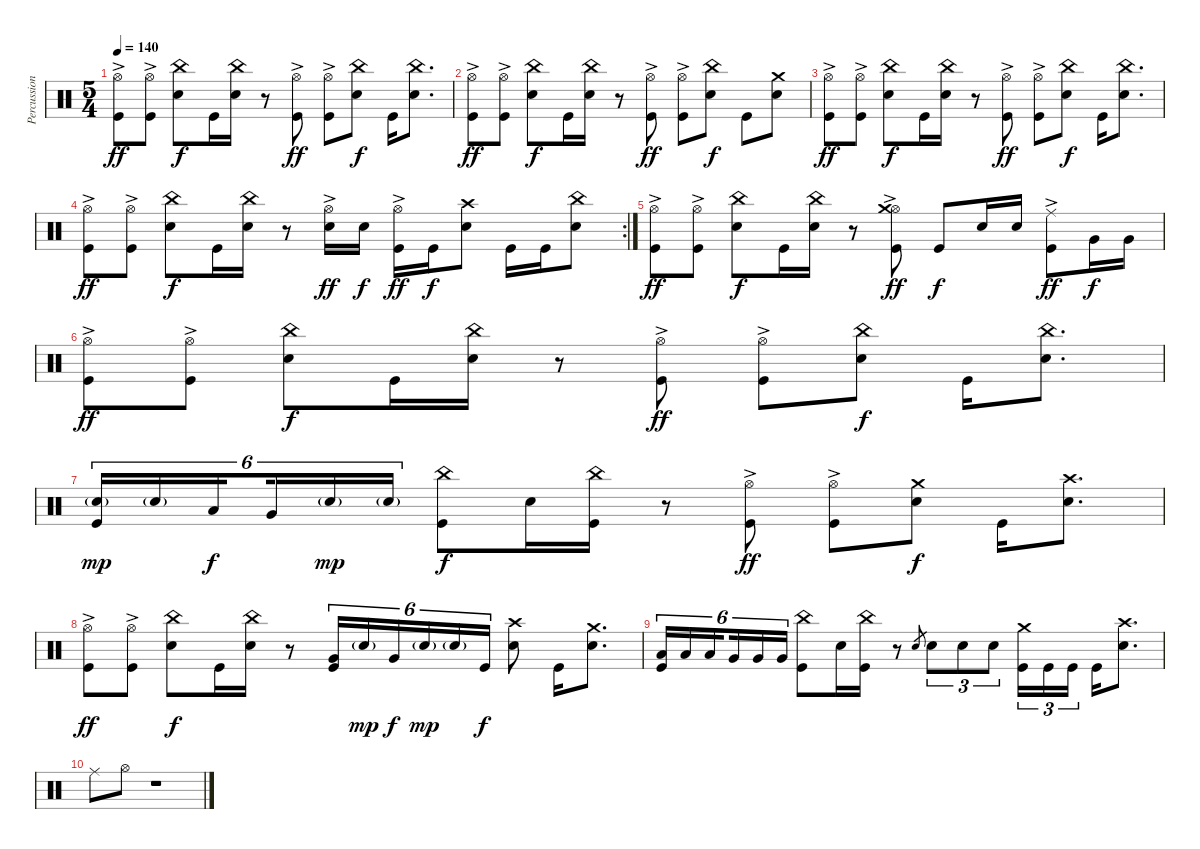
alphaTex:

\track ("Percussion" "Percussion") {instrument percussion}
\staff {score}
\articulation defaults
\ts (5 4)
\tempo 140
\clef neutral
\ks c
("Hi-Hat (open)"{ac} "Kick (hit)").8{dy ff} ("Hi-Hat (open)"{ac} "Kick (hit)").8 ("China (hit)" "Electric Snare (hit)").8{dy f} "Kick (hit)".16 ("China (hit)" "Electric Snare (hit)").16 r.8 ("Hi-Hat (open)"{ac} "Kick (hit)").8{dy ff} ("Hi-Hat (open)"{ac} "Kick (hit)").8 ("China (hit)" "Electric Snare (hit)").8{dy f} "Kick (hit)".16 ("China (hit)" "Electric Snare (hit)").8{d} |
("Hi-Hat (open)"{ac} "Kick (hit)").8{dy ff} ("Hi-Hat (open)"{ac} "Kick (hit)").8 ("China (hit)" "Electric Snare (hit)").8{dy f} "Kick (hit)".16 ("China (hit)" "Electric Snare (hit)").16 r.8 ("Hi-Hat (open)"{ac} "Kick (hit)").8{dy ff} ("Hi-Hat (open)"{ac} "Kick (hit)").8 ("China (hit)" "Electric Snare (hit)").8{dy f} "Kick (hit)".8 ("Crash medium (hit)" "Electric Snare (hit)").8 |
("Hi-Hat (open)"{ac} "Kick (hit)").8{dy ff} ("Hi-Hat (open)"{ac} "Kick (hit)").8 ("China (hit)" "Electric Snare (hit)").8{dy f} "Kick (hit)".16 ("China (hit)" "Electric Snare (hit)").16 r.8 ("Hi-Hat (open)"{ac} "Kick (hit)").8{dy ff} ("Hi-Hat (open)"{ac} "Kick (hit)").8 ("China (hit)" "Electric Snare (hit)").8{dy f} "Kick (hit)".16 ("China (hit)" "Electric Snare (hit)").8{d} |
\rc 2
("Hi-Hat (open)"{ac} "Kick (hit)").8{dy ff} ("Hi-Hat (open)"{ac} "Kick (hit)").8 ("China (hit)" "Electric Snare (hit)").8{dy f} "Kick (hit)".16 ("China (hit)" "Electric Snare (hit)").16 r.8 ("Hi-Hat (open)"{ac} "Electric Snare (hit)").16{dy ff} "Electric Snare (hit)".16{dy f} ("Hi-Hat (open)"{ac} "Kick (hit)").16{dy ff} "Kick (hit)".16{dy f} ("Crash high (hit)" "Electric Snare (hit)").8 "Kick (hit)".16 "Kick (hit)".16 ("China (hit)" "Electric Snare (hit)").8 |
("Hi-Hat (open)"{ac} "Kick (hit)").8{dy ff} ("Hi-Hat (open)"{ac} "Kick (hit)").8 ("China (hit)" "Electric Snare (hit)").8{dy f} "Kick (hit)".16 ("China (hit)" "Electric Snare (hit)").16 r.8 ("Hi-Hat (open)" "Crash medium (hit)"{ac} "Kick (hit)").8{dy ff} "Kick (hit)".8{dy f} "Electric Snare (hit)".16 "Electric Snare (hit)".16 ("Ride (middle)"{ac} "Kick (hit)").8{dy ff} "Very Low Tom (hit)".16{dy f} "Very Low Tom (hit)".16 |
("Hi-Hat (open)"{ac} "Kick (hit)").8{dy ff} ("Hi-Hat (open)"{ac} "Kick (hit)").8 ("China (hit)" "Electric Snare (hit)").8{dy f} "Kick (hit)".16 ("China (hit)" "Electric Snare (hit)").16 r.8 ("Hi-Hat (open)"{ac} "Kick (hit)").8{dy ff} ("Hi-Hat (open)"{ac} "Kick (hit)").8 ("China (hit)" "Electric Snare (hit)").8{dy f} "Kick (hit)".16 ("China (hit)" "Electric Snare (hit)").8{d} |
("Electric Snare (hit)"{g} "Kick (hit)").16{tu (6 4) dy mp} "Electric Snare (hit)"{g}.16{tu (6 4)} "Low Tom (hit)".16{tu (6 4) dy f beam splitsecondary} "Very Low Tom (hit)".16{tu (6 4)} "Electric Snare (hit)"{g}.16{tu (6 4) dy mp} "Electric Snare (hit)"{g}.16{tu (6 4)} ("China (hit)" "Kick (hit)").8{dy f} "Electric Snare (hit)".16 ("China (hit)" "Kick (hit)").16 r.8 ("Hi-Hat (open)"{ac} "Kick (hit)").8{dy ff} ("Hi-Hat (open)"{ac} "Kick (hit)").8 ("Crash medium (hit)" "Electric Snare (hit)").8{dy f} "Kick (hit)".16 ("Crash high (hit)" "Electric Snare (hit)").8{d} |
("Hi-Hat (open)"{ac} "Kick (hit)").8{dy ff} ("Hi-Hat (open)"{ac} "Kick (hit)").8 ("China (hit)" "Electric Snare (hit)").8{dy f} "Kick (hit)".16 ("China (hit)" "Electric Snare (hit)").16 r.8 ("Very Low Tom (hit)" "Kick (hit)").16{tu (6 4)} "Electric Snare (hit)"{g}.16{tu (6 4) dy mp} "Very Low Tom (hit)".16{tu (6 4) dy f} "Electric Snare (hit)"{g}.16{tu (6 4) dy mp} "Electric Snare (hit)"{g}.16{tu (6 4)} "Kick (hit)".16{tu (6 4) dy f} ("Crash high (hit)" "Electric Snare (hit)").8 "Kick (hit)".16 ("Crash medium (hit)" "Electric Snare (hit)").8{d} |
("Low Tom (hit)" "Kick (hit)").16{tu (6 4)} "Low Tom (hit)".16{tu (6 4)} "Low Tom (hit)".16{tu (6 4) beam splitsecondary} "Very Low Tom (hit)".16{tu (6 4)} "Very Low Tom (hit)".16{tu (6 4)} "Very Low Tom (hit)".16{tu (6 4)} ("China (hit)" "Kick (hit)").8 "Electric Snare (hit)".16 ("China (hit)" "Kick (hit)").16 r.8 "Electric Snare (hit)"{x}.8{gr} "Electric Snare (hit)".8{tu (3 2)} "Electric Snare (hit)".8{tu (3 2)} "Electric Snare (hit)".8{tu (3 2)} ("Crash medium (hit)" "Kick (hit)").16{tu (3 2)} "Kick (hit)".16{tu (3 2)} "Kick (hit)".16{tu (3 2)} "Kick (hit)".16 ("Crash high (hit)" "Electric Snare (hit)").8{d} |
"Ride (middle)".8 "Hi-Hat (open)".8 r.1
